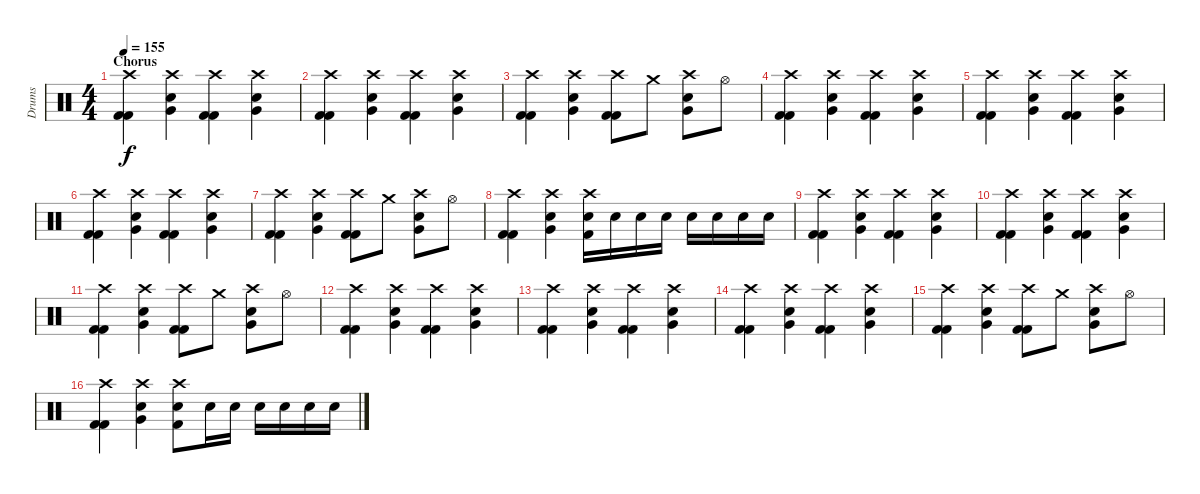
\track ("Drums" "Drums") {instrument percussion}
\staff {score}
\articulation defaults
\ts (4 4)
\section ("" "Chorus")
\tempo 155
\clef neutral
\ks c
("Crash high (hit)" "Kick (hit) 2" "Kick (hit) 2").4{dy f} ("Crash high (hit)" "Very Low Tom (hit)" "Electric Snare (hit)").4 ("Crash high (hit)" "Kick (hit) 2" "Kick (hit) 2").4 ("Crash high (hit)" "Very Low Tom (hit)" "Electric Snare (hit)").4 |
("Crash high (hit)" "Kick (hit) 2" "Kick (hit) 2").4 ("Crash high (hit)" "Very Low Tom (hit)" "Electric Snare (hit)").4 ("Crash high (hit)" "Kick (hit) 2" "Kick (hit) 2").4 ("Crash high (hit)" "Very Low Tom (hit)" "Electric Snare (hit)").4 |
("Crash high (hit)" "Kick (hit) 2" "Kick (hit) 2").4 ("Crash high (hit)" "Very Low Tom (hit)" "Electric Snare (hit)").4 ("Crash high (hit)" "Kick (hit) 2" "Kick (hit) 2").8 "Crash medium (hit)".8 ("Crash high (hit)" "Very Low Tom (hit)" "Electric Snare (hit)").8 "Hi-Hat (open)".8 |
("Crash high (hit)" "Kick (hit) 2" "Kick (hit) 2").4 ("Crash high (hit)" "Very Low Tom (hit)" "Electric Snare (hit)").4 ("Crash high (hit)" "Kick (hit) 2" "Kick (hit) 2").4 ("Crash high (hit)" "Very Low Tom (hit)" "Electric Snare (hit)").4 |
("Crash high (hit)" "Kick (hit) 2" "Kick (hit) 2").4 ("Crash high (hit)" "Very Low Tom (hit)" "Electric Snare (hit)").4 ("Crash high (hit)" "Kick (hit) 2" "Kick (hit) 2").4 ("Crash high (hit)" "Very Low Tom (hit)" "Electric Snare (hit)").4 |
("Crash high (hit)" "Kick (hit) 2" "Kick (hit) 2").4 ("Crash high (hit)" "Very Low Tom (hit)" "Electric Snare (hit)").4 ("Crash high (hit)" "Kick (hit) 2" "Kick (hit) 2").4 ("Crash high (hit)" "Very Low Tom (hit)" "Electric Snare (hit)").4 |
("Crash high (hit)" "Kick (hit) 2" "Kick (hit) 2").4 ("Crash high (hit)" "Very Low Tom (hit)" "Electric Snare (hit)").4 ("Crash high (hit)" "Kick (hit) 2" "Kick (hit) 2").8 "Crash medium (hit)".8 ("Crash high (hit)" "Very Low Tom (hit)" "Electric Snare (hit)").8 "Hi-Hat (open)".8 |
("Crash high (hit)" "Kick (hit) 2" "Kick (hit) 2").4 ("Crash high (hit)" "Very Low Tom (hit)" "Electric Snare (hit)").4 ("Crash high (hit)" "Electric Snare (hit)" "Kick (hit) 2").16 "Electric Snare (hit)".16 "Electric Snare (hit)".16 "Electric Snare (hit)".16 "Electric Snare (hit)".16 "Electric Snare (hit)".16 "Electric Snare (hit)".16 "Electric Snare (hit)".16 |
("Crash high (hit)" "Kick (hit) 2" "Kick (hit) 2").4 ("Crash high (hit)" "Very Low Tom (hit)" "Electric Snare (hit)").4 ("Crash high (hit)" "Kick (hit) 2" "Kick (hit) 2").4 ("Crash high (hit)" "Very Low Tom (hit)" "Electric Snare (hit)").4 |
("Crash high (hit)" "Kick (hit) 2" "Kick (hit) 2").4 ("Crash high (hit)" "Very Low Tom (hit)" "Electric Snare (hit)").4 ("Crash high (hit)" "Kick (hit) 2" "Kick (hit) 2").4 ("Crash high (hit)" "Very Low Tom (hit)" "Electric Snare (hit)").4 |
("Crash high (hit)" "Kick (hit) 2" "Kick (hit) 2").4 ("Crash high (hit)" "Very Low Tom (hit)" "Electric Snare (hit)").4 ("Crash high (hit)" "Kick (hit) 2" "Kick (hit) 2").8 "Crash medium (hit)".8 ("Crash high (hit)" "Very Low Tom (hit)" "Electric Snare (hit)").8 "Hi-Hat (open)".8 |
("Crash high (hit)" "Kick (hit) 2" "Kick (hit) 2").4 ("Crash high (hit)" "Very Low Tom (hit)" "Electric Snare (hit)").4 ("Crash high (hit)" "Kick (hit) 2" "Kick (hit) 2").4 ("Crash high (hit)" "Very Low Tom (hit)" "Electric Snare (hit)").4 |
("Crash high (hit)" "Kick (hit) 2" "Kick (hit) 2").4 ("Crash high (hit)" "Very Low Tom (hit)" "Electric Snare (hit)").4 ("Crash high (hit)" "Kick (hit) 2" "Kick (hit) 2").4 ("Crash high (hit)" "Very Low Tom (hit)" "Electric Snare (hit)").4 |
("Crash high (hit)" "Kick (hit) 2" "Kick (hit) 2").4 ("Crash high (hit)" "Very Low Tom (hit)" "Electric Snare (hit)").4 ("Crash high (hit)" "Kick (hit) 2" "Kick (hit) 2").4 ("Crash high (hit)" "Very Low Tom (hit)" "Electric Snare (hit)").4 |
("Crash high (hit)" "Kick (hit) 2" "Kick (hit) 2").4 ("Crash high (hit)" "Very Low Tom (hit)" "Electric Snare (hit)").4 ("Crash high (hit)" "Kick (hit) 2" "Kick (hit) 2").8 "Crash medium (hit)".8 ("Crash high (hit)" "Very Low Tom (hit)" "Electric Snare (hit)").8 "Hi-Hat (open)".8 |
("Crash high (hit)" "Kick (hit) 2" "Kick (hit) 2").4 ("Crash high (hit)" "Very Low Tom (hit)" "Electric Snare (hit)").4 ("Crash high (hit)" "Electric Snare (hit)" "Kick (hit) 2").8 "Electric Snare (hit)".16 "Electric Snare (hit)".16 "Electric Snare (hit)".16 "Electric Snare (hit)".16 "Electric Snare (hit)".16 "Electric Snare (hit)".16
